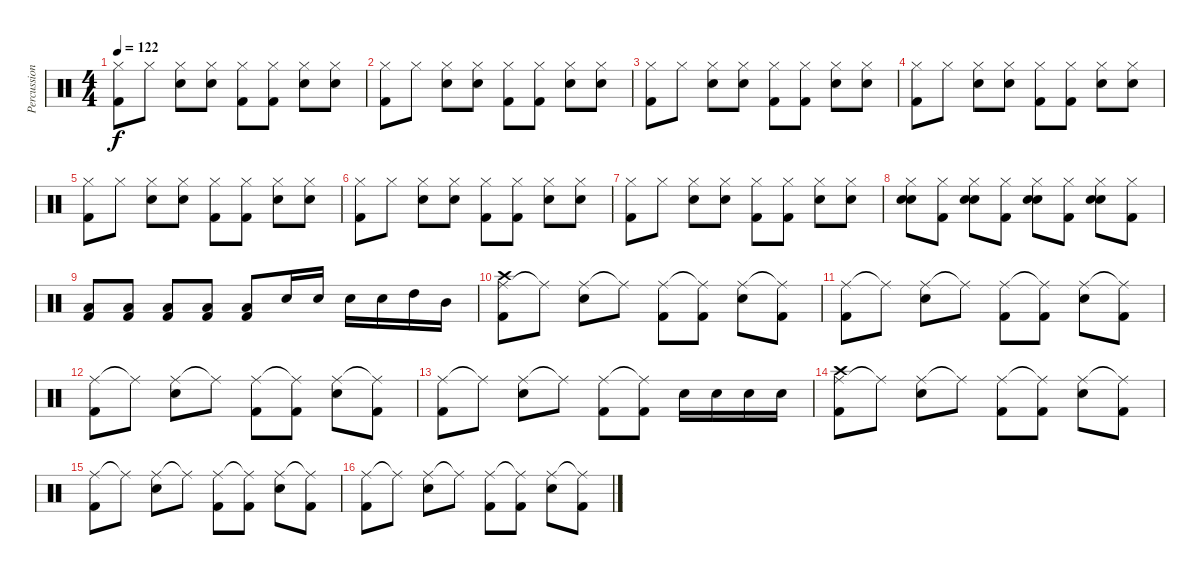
\track ("Percussion" "Percussion") {instrument percussion}
\staff {score}
\articulation defaults
\ts (4 4)
\tempo 122
\clef neutral
\ks c
("Hi-Hat (closed)" "Kick (hit) 2").8{dy f} "Hi-Hat (closed)".8 ("Hi-Hat (closed)" "Snare (hit) 2").8 ("Hi-Hat (closed)" "Snare (hit) 2").8 ("Hi-Hat (closed)" "Kick (hit) 2").8 ("Hi-Hat (closed)" "Kick (hit) 2").8 ("Hi-Hat (closed)" "Snare (hit) 2").8 ("Hi-Hat (closed)" "Snare (hit) 2").8 |
("Hi-Hat (closed)" "Kick (hit) 2").8 "Hi-Hat (closed)".8 ("Hi-Hat (closed)" "Snare (hit) 2").8 ("Hi-Hat (closed)" "Snare (hit) 2").8 ("Hi-Hat (closed)" "Kick (hit) 2").8 ("Hi-Hat (closed)" "Kick (hit) 2").8 ("Hi-Hat (closed)" "Snare (hit) 2").8 ("Hi-Hat (closed)" "Snare (hit) 2").8 |
("Hi-Hat (closed)" "Kick (hit) 2").8 "Hi-Hat (closed)".8 ("Hi-Hat (closed)" "Snare (hit) 2").8 ("Hi-Hat (closed)" "Snare (hit) 2").8 ("Hi-Hat (closed)" "Kick (hit) 2").8 ("Hi-Hat (closed)" "Kick (hit) 2").8 ("Hi-Hat (closed)" "Snare (hit) 2").8 ("Hi-Hat (closed)" "Snare (hit) 2").8 |
("Hi-Hat (closed)" "Kick (hit) 2").8 "Hi-Hat (closed)".8 ("Hi-Hat (closed)" "Snare (hit) 2").8 ("Hi-Hat (closed)" "Snare (hit) 2").8 ("Hi-Hat (closed)" "Kick (hit) 2").8 ("Hi-Hat (closed)" "Kick (hit) 2").8 ("Hi-Hat (closed)" "Snare (hit) 2").8 ("Hi-Hat (closed)" "Snare (hit) 2").8 |
("Hi-Hat (closed)" "Kick (hit) 2").8 "Hi-Hat (closed)".8 ("Hi-Hat (closed)" "Snare (hit) 2").8 ("Hi-Hat (closed)" "Snare (hit) 2").8 ("Hi-Hat (closed)" "Kick (hit) 2").8 ("Hi-Hat (closed)" "Kick (hit) 2").8 ("Hi-Hat (closed)" "Snare (hit) 2").8 ("Hi-Hat (closed)" "Snare (hit) 2").8 |
("Hi-Hat (closed)" "Kick (hit) 2").8 "Hi-Hat (closed)".8 ("Hi-Hat (closed)" "Snare (hit) 2").8 ("Hi-Hat (closed)" "Snare (hit) 2").8 ("Hi-Hat (closed)" "Kick (hit) 2").8 ("Hi-Hat (closed)" "Kick (hit) 2").8 ("Hi-Hat (closed)" "Snare (hit) 2").8 ("Hi-Hat (closed)" "Snare (hit) 2").8 |
("Hi-Hat (closed)" "Kick (hit) 2").8 "Hi-Hat (closed)".8 ("Hi-Hat (closed)" "Snare (hit) 2").8 ("Hi-Hat (closed)" "Snare (hit) 2").8 ("Hi-Hat (closed)" "Kick (hit) 2").8 ("Hi-Hat (closed)" "Kick (hit) 2").8 ("Hi-Hat (closed)" "Snare (hit) 2").8 ("Hi-Hat (closed)" "Snare (hit) 2").8 |
("Hi-Hat (closed)" "Snare (hit) 2" "Snare (hit) 2").8 ("Hi-Hat (closed)" "Kick (hit) 2").8 ("Hi-Hat (closed)" "Snare (hit) 2" "Snare (hit) 2").8 ("Hi-Hat (closed)" "Kick (hit) 2").8 ("Hi-Hat (closed)" "Snare (hit) 2" "Snare (hit) 2").8 ("Hi-Hat (closed)" "Kick (hit) 2").8 ("Hi-Hat (closed)" "Snare (hit) 2" "Snare (hit) 2").8 ("Hi-Hat (closed)" "Kick (hit) 2").8 |
("Low Floor Tom (hit)" "Kick (hit) 2").8 ("Low Floor Tom (hit)" "Kick (hit) 2").8 ("Low Floor Tom (hit)" "Kick (hit) 2").8 ("Low Floor Tom (hit)" "Kick (hit) 2").8 ("Low Floor Tom (hit)" "Kick (hit) 2").8 "Snare (hit) 2".16 "Snare (hit) 2".16 "Snare (hit) 2".16 "Snare (hit) 2".16 "High Tom (hit)".16 "Mid Tom (hit)".16 |
("Ride (middle)" "Crash high (hit)" "Kick (hit) 2").8 "Ride (middle)"{t}.8 ("Ride (middle)" "Snare (hit) 2").8 "Ride (middle)"{t}.8 ("Ride (middle)" "Kick (hit) 2").8 ("Ride (middle)"{t} "Kick (hit) 2").8 ("Ride (middle)" "Snare (hit) 2").8 ("Ride (middle)"{t} "Kick (hit) 2").8 |
("Ride (middle)" "Kick (hit) 2").8 "Ride (middle)"{t}.8 ("Ride (middle)" "Snare (hit) 2").8 "Ride (middle)"{t}.8 ("Ride (middle)" "Kick (hit) 2").8 ("Ride (middle)"{t} "Kick (hit) 2").8 ("Ride (middle)" "Snare (hit) 2").8 ("Ride (middle)"{t} "Kick (hit) 2").8 |
("Ride (middle)" "Kick (hit) 2").8 "Ride (middle)"{t}.8 ("Ride (middle)" "Snare (hit) 2").8 "Ride (middle)"{t}.8 ("Ride (middle)" "Kick (hit) 2").8 ("Ride (middle)"{t} "Kick (hit) 2").8 ("Ride (middle)" "Snare (hit) 2").8 ("Ride (middle)"{t} "Kick (hit) 2").8 |
("Ride (middle)" "Kick (hit) 2").8 "Ride (middle)"{t}.8 ("Ride (middle)" "Snare (hit) 2").8 "Ride (middle)"{t}.8 ("Ride (middle)" "Kick (hit) 2").8 ("Ride (middle)"{t} "Kick (hit) 2").8 "Snare (hit) 2".16 "Snare (hit) 2".16 "Snare (hit) 2".16 "Snare (hit) 2".16 |
("Ride (middle)" "Crash high (hit)" "Kick (hit) 2").8 "Ride (middle)"{t}.8 ("Ride (middle)" "Snare (hit) 2").8 "Ride (middle)"{t}.8 ("Ride (middle)" "Kick (hit) 2").8 ("Ride (middle)"{t} "Kick (hit) 2").8 ("Ride (middle)" "Snare (hit) 2").8 ("Ride (middle)"{t} "Kick (hit) 2").8 |
("Ride (middle)" "Kick (hit) 2").8 "Ride (middle)"{t}.8 ("Ride (middle)" "Snare (hit) 2").8 "Ride (middle)"{t}.8 ("Ride (middle)" "Kick (hit) 2").8 ("Ride (middle)"{t} "Kick (hit) 2").8 ("Ride (middle)" "Snare (hit) 2").8 ("Ride (middle)"{t} "Kick (hit) 2").8 |
("Ride (middle)" "Kick (hit) 2").8 "Ride (middle)"{t}.8 ("Ride (middle)" "Snare (hit) 2").8 "Ride (middle)"{t}.8 ("Ride (middle)" "Kick (hit) 2").8 ("Ride (middle)"{t} "Kick (hit) 2").8 ("Ride (middle)" "Snare (hit) 2").8 ("Ride (middle)"{t} "Kick (hit) 2").8
